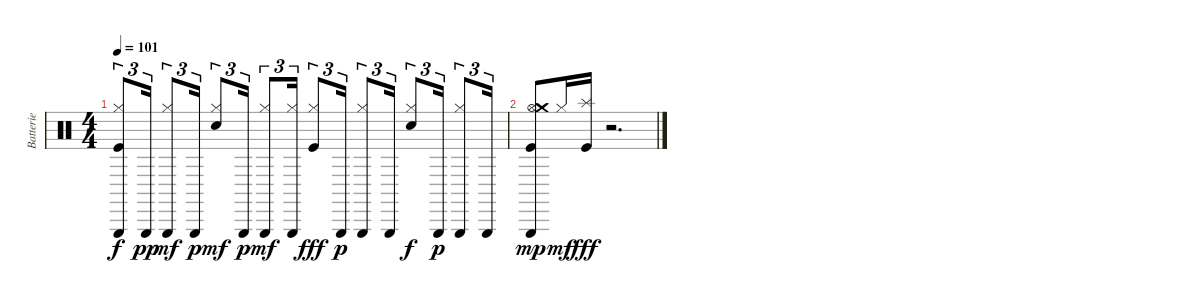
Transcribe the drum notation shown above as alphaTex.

\track ("Batterie" "Batterie") {instrument percussion}
\staff {score}
\articulation defaults
\ts (4 4)
\tempo 101
\clef neutral
\ks c
("Triangle (hit)" "Kick (hit)" "Hi-Hat (closed)").8{tu (3 2) dy f} "Triangle (hit)".16{tu (3 2) dy pp} ("Triangle (hit)" "Hi-Hat (closed)").8{tu (3 2) dy mf} "Triangle (hit)".16{tu (3 2) dy p} ("Electric Snare (hit)" "Hi-Hat (closed)").8{tu (3 2) dy mf} "Triangle (hit)".16{tu (3 2) dy p} ("Triangle (hit)" "Hi-Hat (closed)").8{tu (3 2) dy mf} ("Triangle (hit)" "Hi-Hat (closed)").16{tu (3 2)} ("Kick (hit)" "Hi-Hat (closed)").8{tu (3 2) dy fff} "Triangle (hit)".16{tu (3 2) dy p} ("Triangle (hit)" "Hi-Hat (closed)").8{tu (3 2)} "Triangle (hit)".16{tu (3 2)} ("Electric Snare (hit)" "Hi-Hat (closed)").8{tu (3 2) dy f} "Triangle (hit)".16{tu (3 2) dy p} ("Triangle (hit)" "Hi-Hat (closed)").8{tu (3 2)} "Triangle (hit)".16{tu (3 2)} |
("Hi-Hat (open)" "Triangle (hit)" "Kick (hit)" "Crash medium (hit)").8{dy mp} "Hi-Hat (closed)".16{dy mf} ("Splash (hit)" "Kick (hit)").16{dy fff} r.2{d}
